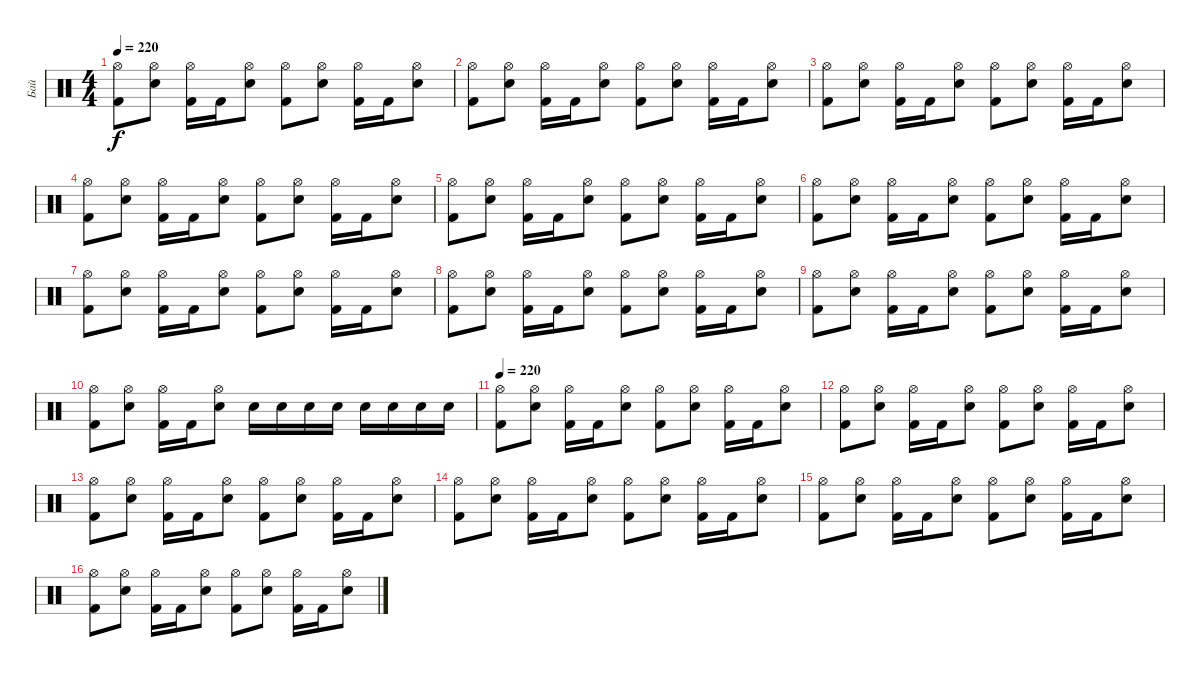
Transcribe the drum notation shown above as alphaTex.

\track ("Бай" "Бай") {instrument percussion}
\staff {score}
\articulation defaults
\ts (4 4)
\tempo 220
\clef neutral
\ks c
("Hi-Hat (open)" "Kick (hit) 2").8{dy f} ("Hi-Hat (open)" "Snare (hit) 2").8 ("Hi-Hat (open)" "Kick (hit) 2").16 "Kick (hit) 2".16 ("Hi-Hat (open)" "Snare (hit) 2").8 ("Hi-Hat (open)" "Kick (hit) 2").8 ("Hi-Hat (open)" "Snare (hit) 2").8 ("Hi-Hat (open)" "Kick (hit) 2").16 "Kick (hit) 2".16 ("Hi-Hat (open)" "Snare (hit) 2").8 |
("Hi-Hat (open)" "Kick (hit) 2").8 ("Hi-Hat (open)" "Snare (hit) 2").8 ("Hi-Hat (open)" "Kick (hit) 2").16 "Kick (hit) 2".16 ("Hi-Hat (open)" "Snare (hit) 2").8 ("Hi-Hat (open)" "Kick (hit) 2").8 ("Hi-Hat (open)" "Snare (hit) 2").8 ("Hi-Hat (open)" "Kick (hit) 2").16 "Kick (hit) 2".16 ("Hi-Hat (open)" "Snare (hit) 2").8 |
("Hi-Hat (open)" "Kick (hit) 2").8 ("Hi-Hat (open)" "Snare (hit) 2").8 ("Hi-Hat (open)" "Kick (hit) 2").16 "Kick (hit) 2".16 ("Hi-Hat (open)" "Snare (hit) 2").8 ("Hi-Hat (open)" "Kick (hit) 2").8 ("Hi-Hat (open)" "Snare (hit) 2").8 ("Hi-Hat (open)" "Kick (hit) 2").16 "Kick (hit) 2".16 ("Hi-Hat (open)" "Snare (hit) 2").8 |
("Hi-Hat (open)" "Kick (hit) 2").8 ("Hi-Hat (open)" "Snare (hit) 2").8 ("Hi-Hat (open)" "Kick (hit) 2").16 "Kick (hit) 2".16 ("Hi-Hat (open)" "Snare (hit) 2").8 ("Hi-Hat (open)" "Kick (hit) 2").8 ("Hi-Hat (open)" "Snare (hit) 2").8 ("Hi-Hat (open)" "Kick (hit) 2").16 "Kick (hit) 2".16 ("Hi-Hat (open)" "Snare (hit) 2").8 |
("Hi-Hat (open)" "Kick (hit) 2").8 ("Hi-Hat (open)" "Snare (hit) 2").8 ("Hi-Hat (open)" "Kick (hit) 2").16 "Kick (hit) 2".16 ("Hi-Hat (open)" "Snare (hit) 2").8 ("Hi-Hat (open)" "Kick (hit) 2").8 ("Hi-Hat (open)" "Snare (hit) 2").8 ("Hi-Hat (open)" "Kick (hit) 2").16 "Kick (hit) 2".16 ("Hi-Hat (open)" "Snare (hit) 2").8 |
("Hi-Hat (open)" "Kick (hit) 2").8 ("Hi-Hat (open)" "Snare (hit) 2").8 ("Hi-Hat (open)" "Kick (hit) 2").16 "Kick (hit) 2".16 ("Hi-Hat (open)" "Snare (hit) 2").8 ("Hi-Hat (open)" "Kick (hit) 2").8 ("Hi-Hat (open)" "Snare (hit) 2").8 ("Hi-Hat (open)" "Kick (hit) 2").16 "Kick (hit) 2".16 ("Hi-Hat (open)" "Snare (hit) 2").8 |
("Hi-Hat (open)" "Kick (hit) 2").8 ("Hi-Hat (open)" "Snare (hit) 2").8 ("Hi-Hat (open)" "Kick (hit) 2").16 "Kick (hit) 2".16 ("Hi-Hat (open)" "Snare (hit) 2").8 ("Hi-Hat (open)" "Kick (hit) 2").8 ("Hi-Hat (open)" "Snare (hit) 2").8 ("Hi-Hat (open)" "Kick (hit) 2").16 "Kick (hit) 2".16 ("Hi-Hat (open)" "Snare (hit) 2").8 |
("Hi-Hat (open)" "Kick (hit) 2").8 ("Hi-Hat (open)" "Snare (hit) 2").8 ("Hi-Hat (open)" "Kick (hit) 2").16 "Kick (hit) 2".16 ("Hi-Hat (open)" "Snare (hit) 2").8 ("Hi-Hat (open)" "Kick (hit) 2").8 ("Hi-Hat (open)" "Snare (hit) 2").8 ("Hi-Hat (open)" "Kick (hit) 2").16 "Kick (hit) 2".16 ("Hi-Hat (open)" "Snare (hit) 2").8 |
("Hi-Hat (open)" "Kick (hit) 2").8 ("Hi-Hat (open)" "Snare (hit) 2").8 ("Hi-Hat (open)" "Kick (hit) 2").16 "Kick (hit) 2".16 ("Hi-Hat (open)" "Snare (hit) 2").8 ("Hi-Hat (open)" "Kick (hit) 2").8 ("Hi-Hat (open)" "Snare (hit) 2").8 ("Hi-Hat (open)" "Kick (hit) 2").16 "Kick (hit) 2".16 ("Hi-Hat (open)" "Snare (hit) 2").8 |
("Hi-Hat (open)" "Kick (hit) 2").8 ("Hi-Hat (open)" "Snare (hit) 2").8 ("Hi-Hat (open)" "Kick (hit) 2").16 "Kick (hit) 2".16 ("Hi-Hat (open)" "Snare (hit) 2").8 "Snare (hit) 2".16 "Snare (hit) 2".16 "Snare (hit) 2".16 "Snare (hit) 2".16 "Snare (hit) 2".16 "Snare (hit) 2".16 "Snare (hit) 2".16 "Snare (hit) 2".16 |
\tempo 220
("Hi-Hat (open)" "Kick (hit) 2").8 ("Hi-Hat (open)" "Snare (hit) 2").8 ("Hi-Hat (open)" "Kick (hit) 2").16 "Kick (hit) 2".16 ("Hi-Hat (open)" "Snare (hit) 2").8 ("Hi-Hat (open)" "Kick (hit) 2").8 ("Hi-Hat (open)" "Snare (hit) 2").8 ("Hi-Hat (open)" "Kick (hit) 2").16 "Kick (hit) 2".16 ("Hi-Hat (open)" "Snare (hit) 2").8 |
("Hi-Hat (open)" "Kick (hit) 2").8 ("Hi-Hat (open)" "Snare (hit) 2").8 ("Hi-Hat (open)" "Kick (hit) 2").16 "Kick (hit) 2".16 ("Hi-Hat (open)" "Snare (hit) 2").8 ("Hi-Hat (open)" "Kick (hit) 2").8 ("Hi-Hat (open)" "Snare (hit) 2").8 ("Hi-Hat (open)" "Kick (hit) 2").16 "Kick (hit) 2".16 ("Hi-Hat (open)" "Snare (hit) 2").8 |
("Hi-Hat (open)" "Kick (hit) 2").8 ("Hi-Hat (open)" "Snare (hit) 2").8 ("Hi-Hat (open)" "Kick (hit) 2").16 "Kick (hit) 2".16 ("Hi-Hat (open)" "Snare (hit) 2").8 ("Hi-Hat (open)" "Kick (hit) 2").8 ("Hi-Hat (open)" "Snare (hit) 2").8 ("Hi-Hat (open)" "Kick (hit) 2").16 "Kick (hit) 2".16 ("Hi-Hat (open)" "Snare (hit) 2").8 |
("Hi-Hat (open)" "Kick (hit) 2").8 ("Hi-Hat (open)" "Snare (hit) 2").8 ("Hi-Hat (open)" "Kick (hit) 2").16 "Kick (hit) 2".16 ("Hi-Hat (open)" "Snare (hit) 2").8 ("Hi-Hat (open)" "Kick (hit) 2").8 ("Hi-Hat (open)" "Snare (hit) 2").8 ("Hi-Hat (open)" "Kick (hit) 2").16 "Kick (hit) 2".16 ("Hi-Hat (open)" "Snare (hit) 2").8 |
("Hi-Hat (open)" "Kick (hit) 2").8 ("Hi-Hat (open)" "Snare (hit) 2").8 ("Hi-Hat (open)" "Kick (hit) 2").16 "Kick (hit) 2".16 ("Hi-Hat (open)" "Snare (hit) 2").8 ("Hi-Hat (open)" "Kick (hit) 2").8 ("Hi-Hat (open)" "Snare (hit) 2").8 ("Hi-Hat (open)" "Kick (hit) 2").16 "Kick (hit) 2".16 ("Hi-Hat (open)" "Snare (hit) 2").8 |
("Hi-Hat (open)" "Kick (hit) 2").8 ("Hi-Hat (open)" "Snare (hit) 2").8 ("Hi-Hat (open)" "Kick (hit) 2").16 "Kick (hit) 2".16 ("Hi-Hat (open)" "Snare (hit) 2").8 ("Hi-Hat (open)" "Kick (hit) 2").8 ("Hi-Hat (open)" "Snare (hit) 2").8 ("Hi-Hat (open)" "Kick (hit) 2").16 "Kick (hit) 2".16 ("Hi-Hat (open)" "Snare (hit) 2").8
